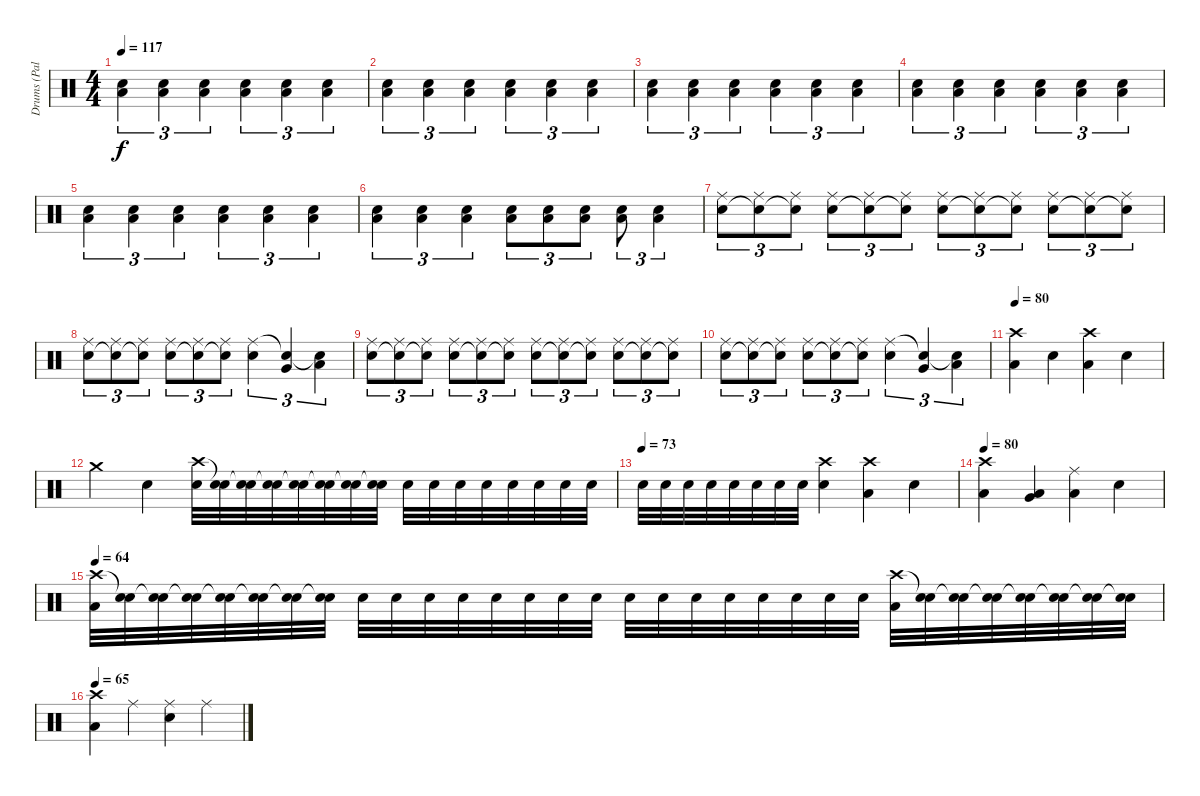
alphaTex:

\track ("Drums (Palmer)" "Drums (Pal") {instrument percussion}
\staff {score}
\articulation defaults
\ts (4 4)
\tempo 117
\clef neutral
\ks c
("Snare (hit) 2" "Low Tom (hit)").4{tu (3 2) dy f} ("Snare (hit) 2" "Low Tom (hit)").4{tu (3 2)} ("Snare (hit) 2" "Low Tom (hit)").4{tu (3 2)} ("Snare (hit) 2" "Low Tom (hit)").4{tu (3 2)} ("Snare (hit) 2" "Low Tom (hit)").4{tu (3 2)} ("Snare (hit) 2" "Low Tom (hit)").4{tu (3 2)} |
("Snare (hit) 2" "Low Tom (hit)").4{tu (3 2)} ("Snare (hit) 2" "Low Tom (hit)").4{tu (3 2)} ("Snare (hit) 2" "Low Tom (hit)").4{tu (3 2)} ("Snare (hit) 2" "Low Tom (hit)").4{tu (3 2)} ("Snare (hit) 2" "Low Tom (hit)").4{tu (3 2)} ("Snare (hit) 2" "Low Tom (hit)").4{tu (3 2)} |
("Snare (hit) 2" "Low Tom (hit)").4{tu (3 2)} ("Snare (hit) 2" "Low Tom (hit)").4{tu (3 2)} ("Snare (hit) 2" "Low Tom (hit)").4{tu (3 2)} ("Snare (hit) 2" "Low Tom (hit)").4{tu (3 2)} ("Snare (hit) 2" "Low Tom (hit)").4{tu (3 2)} ("Snare (hit) 2" "Low Tom (hit)").4{tu (3 2)} |
("Snare (hit) 2" "Low Tom (hit)").4{tu (3 2)} ("Snare (hit) 2" "Low Tom (hit)").4{tu (3 2)} ("Snare (hit) 2" "Low Tom (hit)").4{tu (3 2)} ("Snare (hit) 2" "Low Tom (hit)").4{tu (3 2)} ("Snare (hit) 2" "Low Tom (hit)").4{tu (3 2)} ("Snare (hit) 2" "Low Tom (hit)").4{tu (3 2)} |
("Snare (hit) 2" "Low Tom (hit)").4{tu (3 2)} ("Snare (hit) 2" "Low Tom (hit)").4{tu (3 2)} ("Snare (hit) 2" "Low Tom (hit)").4{tu (3 2)} ("Snare (hit) 2" "Low Tom (hit)").4{tu (3 2)} ("Snare (hit) 2" "Low Tom (hit)").4{tu (3 2)} ("Snare (hit) 2" "Low Tom (hit)").4{tu (3 2)} |
("Snare (hit) 2" "Low Tom (hit)").4{tu (3 2)} ("Snare (hit) 2" "Low Tom (hit)").4{tu (3 2)} ("Snare (hit) 2" "Low Tom (hit)").4{tu (3 2)} ("Snare (hit) 2" "Low Tom (hit)").8{tu (3 2)} ("Snare (hit) 2" "Low Tom (hit)").8{tu (3 2)} ("Snare (hit) 2" "Low Tom (hit)").8{tu (3 2)} ("Snare (hit) 2" "Low Tom (hit)").8{tu (3 2)} ("Snare (hit) 2" "Low Tom (hit)").4{tu (3 2)} |
("Ride (middle)" "Snare (hit) 2").8{tu (3 2)} ("Ride (middle)" "Snare (hit)"{t}).8{tu (3 2)} ("Ride (middle)" "Snare (hit)"{t}).8{tu (3 2)} ("Ride (middle)" "Snare (hit) 2").8{tu (3 2)} ("Ride (middle)" "Snare (hit)"{t}).8{tu (3 2)} ("Ride (middle)" "Snare (hit)"{t}).8{tu (3 2)} ("Ride (middle)" "Snare (hit) 2").8{tu (3 2)} ("Ride (middle)" "Snare (hit)"{t}).8{tu (3 2)} ("Ride (middle)" "Snare (hit)"{t}).8{tu (3 2)} ("Ride (middle)" "Snare (hit) 2").8{tu (3 2)} ("Ride (middle)" "Snare (hit)"{t}).8{tu (3 2)} ("Ride (middle)" "Snare (hit)"{t}).8{tu (3 2)} |
("Ride (middle)" "Snare (hit) 2").8{tu (3 2)} ("Ride (middle)" "Snare (hit)"{t}).8{tu (3 2)} ("Ride (middle)" "Snare (hit)"{t}).8{tu (3 2)} ("Ride (middle)" "Snare (hit) 2").8{tu (3 2)} ("Ride (middle)" "Snare (hit)"{t}).8{tu (3 2)} ("Ride (middle)" "Snare (hit)"{t}).8{tu (3 2)} ("Ride (middle)" "Snare (hit) 2").4{tu (3 2)} ("Snare (hit)"{t} "Very Low Tom (hit)").4{tu (3 2)} ("Snare (hit)"{t} "Low Floor Tom (hit)").4{tu (3 2)} |
("Ride (middle)" "Snare (hit) 2").8{tu (3 2)} ("Ride (middle)" "Snare (hit)"{t}).8{tu (3 2)} ("Ride (middle)" "Snare (hit)"{t}).8{tu (3 2)} ("Ride (middle)" "Snare (hit) 2").8{tu (3 2)} ("Ride (middle)" "Snare (hit)"{t}).8{tu (3 2)} ("Ride (middle)" "Snare (hit)"{t}).8{tu (3 2)} ("Ride (middle)" "Snare (hit) 2").8{tu (3 2)} ("Ride (middle)" "Snare (hit)"{t}).8{tu (3 2)} ("Ride (middle)" "Snare (hit)"{t}).8{tu (3 2)} ("Ride (middle)" "Snare (hit) 2").8{tu (3 2)} ("Ride (middle)" "Snare (hit)"{t}).8{tu (3 2)} ("Ride (middle)" "Snare (hit)"{t}).8{tu (3 2)} |
("Ride (middle)" "Snare (hit) 2").8{tu (3 2)} ("Ride (middle)" "Snare (hit)"{t}).8{tu (3 2)} ("Ride (middle)" "Snare (hit)"{t}).8{tu (3 2)} ("Ride (middle)" "Snare (hit) 2").8{tu (3 2)} ("Ride (middle)" "Snare (hit)"{t}).8{tu (3 2)} ("Ride (middle)" "Snare (hit)"{t}).8{tu (3 2)} ("Ride (middle)" "Snare (hit) 2").4{tu (3 2)} ("Snare (hit)"{t} "Very Low Tom (hit)").4{tu (3 2)} ("Snare (hit)"{t} "Low Floor Tom (hit)").4{tu (3 2)} |
\tempo 80
("Crash high (hit)" "Low Floor Tom (hit)").4 "Snare (hit) 2".4 ("Crash high (hit)" "Low Floor Tom (hit)").4 "Snare (hit) 2".4 |
"Crash medium (hit)".4 "Snare (hit) 2".4 ("Crash high (hit)" "Snare (hit) 2").32 ("Snare (hit)"{t} "Snare (hit) 2").32 ("Snare (hit)"{t} "Snare (hit) 2").32 ("Snare (hit)"{t} "Snare (hit) 2").32 ("Snare (hit)"{t} "Snare (hit) 2").32 ("Snare (hit)"{t} "Snare (hit) 2").32 ("Snare (hit)"{t} "Snare (hit) 2").32 ("Snare (hit)"{t} "Snare (hit) 2").32 "Snare (hit) 2".32 "Snare (hit) 2".32 "Snare (hit) 2".32 "Snare (hit) 2".32 "Snare (hit) 2".32 "Snare (hit) 2".32 "Snare (hit) 2".32 "Snare (hit) 2".32 |
\tempo (73)
"Snare (hit) 2".32 "Snare (hit) 2".32 "Snare (hit) 2".32 "Snare (hit) 2".32 "Snare (hit) 2".32 "Snare (hit) 2".32 "Snare (hit) 2".32 "Snare (hit) 2".32 ("Crash high (hit)" "Snare (hit) 2").4 ("Crash high (hit)" "Low Floor Tom (hit)").4 "Snare (hit) 2".4 |
\tempo 80
("Crash high (hit)" "Low Floor Tom (hit)").4 ("Very Low Tom (hit)" "Low Floor Tom (hit)").4 ("Ride (middle)" "Low Floor Tom (hit)").4 "Snare (hit) 2".4 |
\tempo 64
("Crash high (hit)" "Low Floor Tom (hit)").32 ("Snare (hit)"{t} "Snare (hit) 2").32 ("Snare (hit)"{t} "Snare (hit) 2").32 ("Snare (hit)"{t} "Snare (hit) 2").32 ("Snare (hit)"{t} "Snare (hit) 2").32 ("Snare (hit)"{t} "Snare (hit) 2").32 ("Snare (hit)"{t} "Snare (hit) 2").32 ("Snare (hit)"{t} "Snare (hit) 2").32 "Snare (hit) 2".32 "Snare (hit) 2".32 "Snare (hit) 2".32 "Snare (hit) 2".32 "Snare (hit) 2".32 "Snare (hit) 2".32 "Snare (hit) 2".32 "Snare (hit) 2".32 "Snare (hit) 2".32 "Snare (hit) 2".32 "Snare (hit) 2".32 "Snare (hit) 2".32 "Snare (hit) 2".32 "Snare (hit) 2".32 "Snare (hit) 2".32 "Snare (hit) 2".32 ("Crash high (hit)" "Low Floor Tom (hit)").32 ("Snare (hit)"{t} "Snare (hit) 2").32 ("Snare (hit)"{t} "Snare (hit) 2").32 ("Snare (hit)"{t} "Snare (hit) 2").32 ("Snare (hit)"{t} "Snare (hit) 2").32 ("Snare (hit)"{t} "Snare (hit) 2").32 ("Snare (hit)"{t} "Snare (hit) 2").32 ("Snare (hit)"{t} "Snare (hit) 2").32 |
\tempo 65
("Crash high (hit)" "Low Floor Tom (hit)").4 "Ride (middle)".4 ("Ride (middle)" "Snare (hit) 2").4 "Ride (middle)".4
